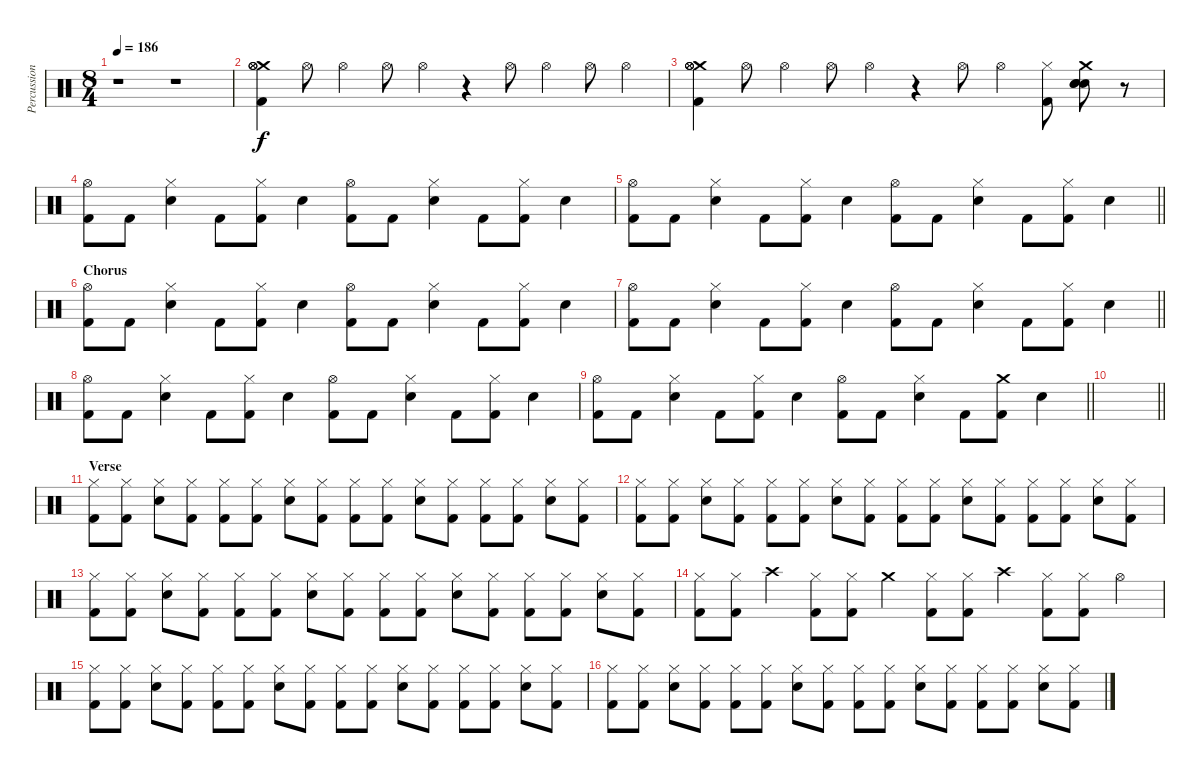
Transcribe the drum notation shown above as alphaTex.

\track ("Percussion" "Percussion") {instrument percussion}
\staff {score}
\articulation defaults
\ts (8 4)
\tempo 186
\clef neutral
\ks c
r.1{dy f} r.1 |
("Crash medium (hit)" "Hi-Hat (open)" "Hi-Hat (open)" "Hi-Hat (open)" "Kick (hit) 2").4 "Hi-Hat (open)".8 "Hi-Hat (open)".4 "Hi-Hat (open)".8 "Hi-Hat (open)".4 r.4 "Hi-Hat (open)".8 "Hi-Hat (open)".4 "Hi-Hat (open)".8 "Hi-Hat (open)".4 |
("Crash medium (hit)" "Hi-Hat (open)" "Hi-Hat (open)" "Hi-Hat (open)" "Kick (hit) 2").4 "Hi-Hat (open)".8 "Hi-Hat (open)".4 "Hi-Hat (open)".8 "Hi-Hat (open)".4 r.4 "Hi-Hat (open)".8 "Hi-Hat (open)".4 ("Hi-Hat (closed)" "Kick (hit) 2").8 ("Crash medium (hit)" "Electric Snare (hit)" "Electric Snare (hit)" "Electric Snare (hit)").8 r.8 |
("Hi-Hat (open)" "Kick (hit) 2").8 "Kick (hit) 2".8 ("Hi-Hat (closed)" "Electric Snare (hit)").4 "Kick (hit) 2".8 ("Hi-Hat (closed)" "Kick (hit) 2").8 "Electric Snare (hit)".4 ("Hi-Hat (open)" "Kick (hit) 2").8 "Kick (hit) 2".8 ("Hi-Hat (closed)" "Electric Snare (hit)").4 "Kick (hit) 2".8 ("Hi-Hat (closed)" "Kick (hit) 2").8 "Electric Snare (hit)".4 |
\barLineRight lightlight
("Hi-Hat (open)" "Kick (hit) 2").8 "Kick (hit) 2".8 ("Hi-Hat (closed)" "Electric Snare (hit)").4 "Kick (hit) 2".8 ("Hi-Hat (closed)" "Kick (hit) 2").8 "Electric Snare (hit)".4 ("Hi-Hat (open)" "Kick (hit) 2").8 "Kick (hit) 2".8 ("Hi-Hat (closed)" "Electric Snare (hit)").4 "Kick (hit) 2".8 ("Hi-Hat (closed)" "Kick (hit) 2").8 "Electric Snare (hit)".4 |
\section ("" "Chorus")
("Hi-Hat (open)" "Kick (hit) 2").8 "Kick (hit) 2".8 ("Hi-Hat (closed)" "Electric Snare (hit)").4 "Kick (hit) 2".8 ("Hi-Hat (closed)" "Kick (hit) 2").8 "Electric Snare (hit)".4 ("Hi-Hat (open)" "Kick (hit) 2").8 "Kick (hit) 2".8 ("Hi-Hat (closed)" "Electric Snare (hit)").4 "Kick (hit) 2".8 ("Hi-Hat (closed)" "Kick (hit) 2").8 "Electric Snare (hit)".4 |
\barLineRight lightlight
("Hi-Hat (open)" "Kick (hit) 2").8 "Kick (hit) 2".8 ("Hi-Hat (closed)" "Electric Snare (hit)").4 "Kick (hit) 2".8 ("Hi-Hat (closed)" "Kick (hit) 2").8 "Electric Snare (hit)".4 ("Hi-Hat (open)" "Kick (hit) 2").8 "Kick (hit) 2".8 ("Hi-Hat (closed)" "Electric Snare (hit)").4 "Kick (hit) 2".8 ("Hi-Hat (closed)" "Kick (hit) 2").8 "Electric Snare (hit)".4 |
("Hi-Hat (open)" "Kick (hit) 2").8 "Kick (hit) 2".8 ("Hi-Hat (closed)" "Electric Snare (hit)").4 "Kick (hit) 2".8 ("Hi-Hat (closed)" "Kick (hit) 2").8 "Electric Snare (hit)".4 ("Hi-Hat (open)" "Kick (hit) 2").8 "Kick (hit) 2".8 ("Hi-Hat (closed)" "Electric Snare (hit)").4 "Kick (hit) 2".8 ("Hi-Hat (closed)" "Kick (hit) 2").8 "Electric Snare (hit)".4 |
\barLineRight lightlight
("Hi-Hat (open)" "Kick (hit) 2").8 "Kick (hit) 2".8 ("Hi-Hat (closed)" "Electric Snare (hit)").4 "Kick (hit) 2".8 ("Hi-Hat (closed)" "Kick (hit) 2").8 "Electric Snare (hit)".4 ("Hi-Hat (open)" "Kick (hit) 2").8 "Kick (hit) 2".8 ("Hi-Hat (closed)" "Electric Snare (hit)").4 "Kick (hit) 2".8 ("Crash medium (hit)" "Kick (hit) 2").8 "Electric Snare (hit)".4 |
\barLineRight lightlight
|
\section ("" "Verse")
("Hi-Hat (closed)" "Kick (hit) 2").8 ("Hi-Hat (closed)" "Kick (hit) 2").8 ("Hi-Hat (closed)" "Electric Snare (hit)").8 ("Hi-Hat (closed)" "Kick (hit) 2").8 ("Hi-Hat (closed)" "Kick (hit) 2").8 ("Hi-Hat (closed)" "Kick (hit) 2").8 ("Hi-Hat (closed)" "Electric Snare (hit)").8 ("Hi-Hat (closed)" "Kick (hit) 2").8 ("Hi-Hat (closed)" "Kick (hit) 2").8 ("Hi-Hat (closed)" "Kick (hit) 2").8 ("Hi-Hat (closed)" "Electric Snare (hit)").8 ("Hi-Hat (closed)" "Kick (hit) 2").8 ("Hi-Hat (closed)" "Kick (hit) 2").8 ("Hi-Hat (closed)" "Kick (hit) 2").8 ("Hi-Hat (closed)" "Electric Snare (hit)").8 ("Hi-Hat (closed)" "Kick (hit) 2").8 |
("Hi-Hat (closed)" "Kick (hit) 2").8 ("Hi-Hat (closed)" "Kick (hit) 2").8 ("Hi-Hat (closed)" "Electric Snare (hit)").8 ("Hi-Hat (closed)" "Kick (hit) 2").8 ("Hi-Hat (closed)" "Kick (hit) 2").8 ("Hi-Hat (closed)" "Kick (hit) 2").8 ("Hi-Hat (closed)" "Electric Snare (hit)").8 ("Hi-Hat (closed)" "Kick (hit) 2").8 ("Hi-Hat (closed)" "Kick (hit) 2").8 ("Hi-Hat (closed)" "Kick (hit) 2").8 ("Hi-Hat (closed)" "Electric Snare (hit)").8 ("Hi-Hat (closed)" "Kick (hit) 2").8 ("Hi-Hat (closed)" "Kick (hit) 2").8 ("Hi-Hat (closed)" "Kick (hit) 2").8 ("Hi-Hat (closed)" "Electric Snare (hit)").8 ("Hi-Hat (closed)" "Kick (hit) 2").8 |
("Hi-Hat (closed)" "Kick (hit) 2").8 ("Hi-Hat (closed)" "Kick (hit) 2").8 ("Hi-Hat (closed)" "Electric Snare (hit)").8 ("Hi-Hat (closed)" "Kick (hit) 2").8 ("Hi-Hat (closed)" "Kick (hit) 2").8 ("Hi-Hat (closed)" "Kick (hit) 2").8 ("Hi-Hat (closed)" "Electric Snare (hit)").8 ("Hi-Hat (closed)" "Kick (hit) 2").8 ("Hi-Hat (closed)" "Kick (hit) 2").8 ("Hi-Hat (closed)" "Kick (hit) 2").8 ("Hi-Hat (closed)" "Electric Snare (hit)").8 ("Hi-Hat (closed)" "Kick (hit) 2").8 ("Hi-Hat (closed)" "Kick (hit) 2").8 ("Hi-Hat (closed)" "Kick (hit) 2").8 ("Hi-Hat (closed)" "Electric Snare (hit)").8 ("Hi-Hat (closed)" "Kick (hit) 2").8 |
("Hi-Hat (closed)" "Kick (hit) 2").8 ("Hi-Hat (closed)" "Kick (hit) 2").8 "Crash high (hit)".4 ("Hi-Hat (closed)" "Kick (hit) 2").8 ("Hi-Hat (closed)" "Kick (hit) 2").8 "Crash medium (hit)".4 ("Hi-Hat (closed)" "Kick (hit) 2").8 ("Hi-Hat (closed)" "Kick (hit) 2").8 "Crash high (hit)".4 ("Hi-Hat (closed)" "Kick (hit) 2").8 ("Hi-Hat (closed)" "Kick (hit) 2").8 "Hi-Hat (open)".4 |
("Hi-Hat (closed)" "Kick (hit) 2").8 ("Hi-Hat (closed)" "Kick (hit) 2").8 ("Hi-Hat (closed)" "Electric Snare (hit)").8 ("Hi-Hat (closed)" "Kick (hit) 2").8 ("Hi-Hat (closed)" "Kick (hit) 2").8 ("Hi-Hat (closed)" "Kick (hit) 2").8 ("Hi-Hat (closed)" "Electric Snare (hit)").8 ("Hi-Hat (closed)" "Kick (hit) 2").8 ("Hi-Hat (closed)" "Kick (hit) 2").8 ("Hi-Hat (closed)" "Kick (hit) 2").8 ("Hi-Hat (closed)" "Electric Snare (hit)").8 ("Hi-Hat (closed)" "Kick (hit) 2").8 ("Hi-Hat (closed)" "Kick (hit) 2").8 ("Hi-Hat (closed)" "Kick (hit) 2").8 ("Hi-Hat (closed)" "Electric Snare (hit)").8 ("Hi-Hat (closed)" "Kick (hit) 2").8 |
("Hi-Hat (closed)" "Kick (hit) 2").8 ("Hi-Hat (closed)" "Kick (hit) 2").8 ("Hi-Hat (closed)" "Electric Snare (hit)").8 ("Hi-Hat (closed)" "Kick (hit) 2").8 ("Hi-Hat (closed)" "Kick (hit) 2").8 ("Hi-Hat (closed)" "Kick (hit) 2").8 ("Hi-Hat (closed)" "Electric Snare (hit)").8 ("Hi-Hat (closed)" "Kick (hit) 2").8 ("Hi-Hat (closed)" "Kick (hit) 2").8 ("Hi-Hat (closed)" "Kick (hit) 2").8 ("Hi-Hat (closed)" "Electric Snare (hit)").8 ("Hi-Hat (closed)" "Kick (hit) 2").8 ("Hi-Hat (closed)" "Kick (hit) 2").8 ("Hi-Hat (closed)" "Kick (hit) 2").8 ("Hi-Hat (closed)" "Electric Snare (hit)").8 ("Hi-Hat (closed)" "Kick (hit) 2").8
